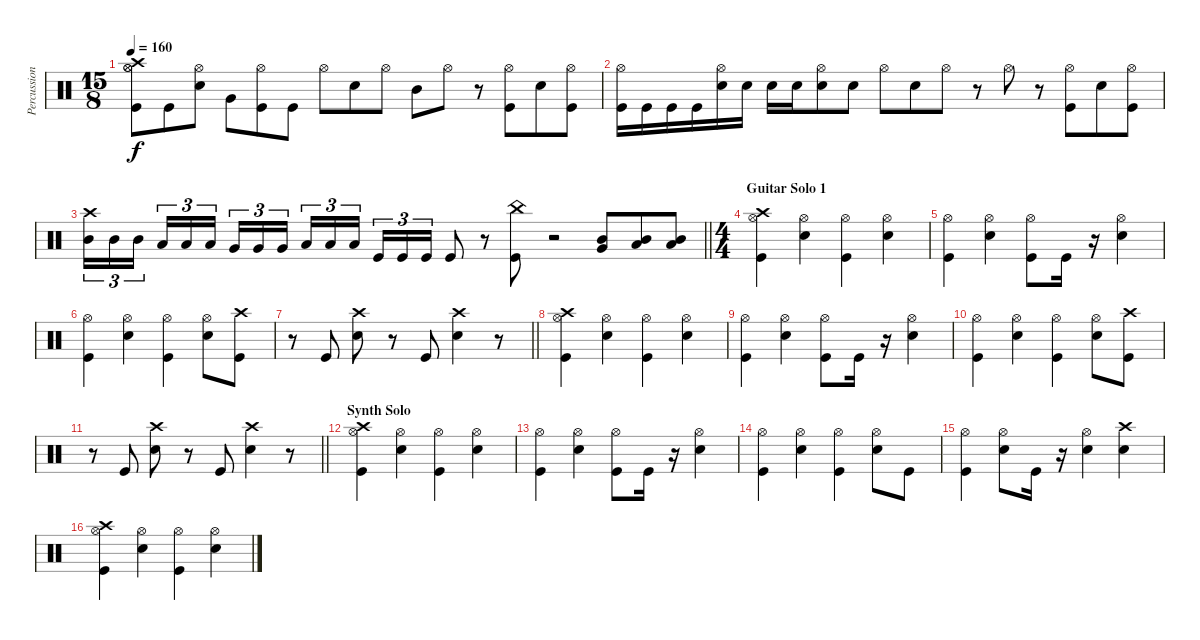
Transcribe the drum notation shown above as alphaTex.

\track ("Percussion" "Percussion") {instrument percussion}
\staff {score}
\articulation defaults
\ts (15 8)
\tempo 160
\clef neutral
\ks c
("Kick (hit)" "Hi-Hat (open)" "Crash high (hit)" "Hi-Hat (open)").8{dy f} "Kick (hit)".8 ("Snare (hit) 2" "Hi-Hat (open)").8 "Very Low Tom (hit)".8 ("Hi-Hat (open)" "Kick (hit)").8 "Kick (hit)".8 "Hi-Hat (open)".8 "Snare (hit) 2".8 "Hi-Hat (open)".8 "Mid Tom (hit)".8 "Hi-Hat (open)".8 r.8 ("Kick (hit)" "Hi-Hat (open)").8 "Snare (hit) 2".8 ("Kick (hit)" "Hi-Hat (open)").8 |
("Hi-Hat (open)" "Kick (hit)").16 "Kick (hit)".16 "Kick (hit)".16 "Kick (hit)".16 ("Snare (hit) 2" "Hi-Hat (open)").16 "Snare (hit) 2".16 "Snare (hit) 2".16 "Snare (hit) 2".16 ("Snare (hit) 2" "Hi-Hat (open)").8 "Snare (hit) 2".8 "Hi-Hat (open)".8 "Snare (hit) 2".8 "Hi-Hat (open)".8 r.8 "Hi-Hat (open)".8 r.8 ("Kick (hit)" "Hi-Hat (open)").8 "Snare (hit) 2".8 ("Kick (hit)" "Hi-Hat (open)").8 |
\barLineRight lightlight
("Mid Tom (hit)" "Crash high (hit)").16{tu (3 2)} "Mid Tom (hit)".16{tu (3 2)} "Mid Tom (hit)".16{tu (3 2) beam splitsecondary} "Low Tom (hit)".16{tu (3 2)} "Low Tom (hit)".16{tu (3 2)} "Low Tom (hit)".16{tu (3 2) beam splitsecondary} "Very Low Tom (hit)".16{tu (3 2)} "Very Low Tom (hit)".16{tu (3 2)} "Very Low Tom (hit)".16{tu (3 2)} "Low Floor Tom (hit)".16{tu (3 2)} "Low Floor Tom (hit)".16{tu (3 2)} "Low Floor Tom (hit)".16{tu (3 2) beam splitsecondary} "Kick (hit)".16{tu (3 2)} "Kick (hit)".16{tu (3 2)} "Kick (hit)".16{tu (3 2)} "Kick (hit)".8 r.8 ("Kick (hit)" "China (hit)").8 r.2 ("Mid Tom (hit)" "Very Low Tom (hit)").8 ("Mid Tom (hit)" "Low Tom (hit)").8 ("Mid Tom (hit)" "Low Tom (hit)").8 |
\ts (4 4)
\section ("" "Guitar Solo 1")
("Kick (hit)" "Crash high (hit)" "Hi-Hat (open)").4 ("Hi-Hat (open)" "Snare (hit) 2").4 ("Kick (hit)" "Hi-Hat (open)").4 ("Snare (hit) 2" "Hi-Hat (open)").4 |
("Kick (hit)" "Hi-Hat (open)").4 ("Hi-Hat (open)" "Snare (hit) 2").4 ("Kick (hit)" "Hi-Hat (open)").8 "Kick (hit)".16 r.16 ("Snare (hit) 2" "Hi-Hat (open)").4 |
("Kick (hit)" "Hi-Hat (open)").4 ("Hi-Hat (open)" "Snare (hit) 2").4 ("Kick (hit)" "Hi-Hat (open)").4 ("Snare (hit) 2" "Hi-Hat (open)").8 ("Kick (hit)" "Crash high (hit)").8 |
\barLineRight lightlight
r.8 "Kick (hit)".8 ("Snare (hit) 2" "Crash high (hit)").8 r.8 "Kick (hit)".8 ("Snare (hit) 2" "Crash high (hit)").4 r.8 |
("Kick (hit)" "Crash high (hit)" "Hi-Hat (open)").4 ("Hi-Hat (open)" "Snare (hit) 2").4 ("Kick (hit)" "Hi-Hat (open)").4 ("Snare (hit) 2" "Hi-Hat (open)").4 |
("Kick (hit)" "Hi-Hat (open)").4 ("Hi-Hat (open)" "Snare (hit) 2").4 ("Kick (hit)" "Hi-Hat (open)").8 "Kick (hit)".16 r.16 ("Snare (hit) 2" "Hi-Hat (open)").4 |
("Kick (hit)" "Hi-Hat (open)").4 ("Hi-Hat (open)" "Snare (hit) 2").4 ("Kick (hit)" "Hi-Hat (open)").4 ("Snare (hit) 2" "Hi-Hat (open)").8 ("Kick (hit)" "Crash high (hit)").8 |
\barLineRight lightlight
r.8 "Kick (hit)".8 ("Snare (hit) 2" "Crash high (hit)").8 r.8 "Kick (hit)".8 ("Snare (hit) 2" "Crash high (hit)").4 r.8 |
\section ("" "Synth Solo")
("Kick (hit)" "Crash high (hit)" "Hi-Hat (open)").4 ("Hi-Hat (open)" "Snare (hit) 2").4 ("Kick (hit)" "Hi-Hat (open)").4 ("Snare (hit) 2" "Hi-Hat (open)").4 |
("Kick (hit)" "Hi-Hat (open)").4 ("Hi-Hat (open)" "Snare (hit) 2").4 ("Kick (hit)" "Hi-Hat (open)").8 "Kick (hit)".16 r.16 ("Snare (hit) 2" "Hi-Hat (open)").4 |
("Kick (hit)" "Hi-Hat (open)").4 ("Hi-Hat (open)" "Snare (hit) 2").4 ("Kick (hit)" "Hi-Hat (open)").4 ("Snare (hit) 2" "Hi-Hat (open)").8 "Kick (hit)".8 |
("Kick (hit)" "Hi-Hat (open)").4 ("Snare (hit) 2" "Hi-Hat (open)").8 "Kick (hit)".16 r.16 ("Snare (hit) 2" "Hi-Hat (open)").4 ("Snare (hit) 2" "Crash high (hit)").4 |
("Kick (hit)" "Crash high (hit)" "Hi-Hat (open)").4 ("Hi-Hat (open)" "Snare (hit) 2").4 ("Kick (hit)" "Hi-Hat (open)").4 ("Snare (hit) 2" "Hi-Hat (open)").4
